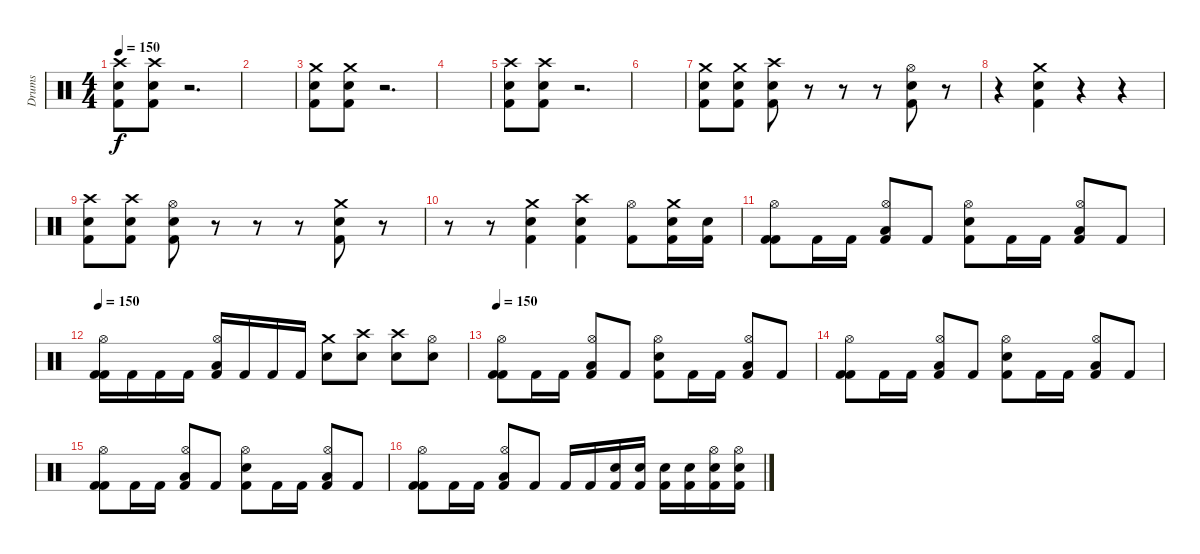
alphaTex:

\track ("Drums" "Drums") {instrument percussion}
\staff {score}
\articulation defaults
\ts (4 4)
\tempo 150
\clef neutral
\ks c
("Crash high (hit)" "Snare (hit) 2" "Kick (hit) 2").8{dy f} ("Crash high (hit)" "Snare (hit) 2" "Kick (hit) 2").8 r.2{d} |
|
("Crash medium (hit)" "Snare (hit) 2" "Kick (hit) 2").8 ("Crash medium (hit)" "Snare (hit) 2" "Kick (hit) 2").8 r.2{d} |
|
("Crash high (hit)" "Snare (hit) 2" "Kick (hit) 2").8 ("Crash high (hit)" "Snare (hit) 2" "Kick (hit) 2").8 r.2{d} |
|
("Crash medium (hit)" "Snare (hit) 2" "Kick (hit) 2").8 ("Crash medium (hit)" "Snare (hit) 2" "Kick (hit) 2").8 ("Crash high (hit)" "Snare (hit) 2" "Kick (hit) 2").8 r.8 r.8 r.8 ("Hi-Hat (open)" "Snare (hit) 2" "Kick (hit) 2").8 r.8 |
r.4 ("Crash medium (hit)" "Snare (hit) 2" "Kick (hit) 2").4 r.4 r.4 |
("Crash high (hit)" "Snare (hit) 2" "Kick (hit) 2").8 ("Crash high (hit)" "Snare (hit) 2" "Kick (hit) 2").8 ("Hi-Hat (open)" "Snare (hit) 2" "Kick (hit) 2").8 r.8 r.8 r.8 ("Crash medium (hit)" "Snare (hit) 2" "Kick (hit) 2").8 r.8 |
r.8 r.8 ("Crash medium (hit)" "Snare (hit) 2" "Kick (hit) 2").4 ("Crash high (hit)" "Snare (hit) 2" "Kick (hit) 2").4 ("Hi-Hat (open)" "Kick (hit) 2").8 ("Crash medium (hit)" "Snare (hit) 2" "Kick (hit) 2").16 ("Snare (hit) 2" "Kick (hit) 2").16 |
("Hi-Hat (open)" "Kick (hit) 2" "Kick (hit) 2").8 "Kick (hit) 2".16 "Kick (hit) 2".16 ("Hi-Hat (open)" "Low Floor Tom (hit)" "Kick (hit) 2").8 "Kick (hit) 2".8 ("Hi-Hat (open)" "Snare (hit) 2" "Kick (hit) 2").8 "Kick (hit) 2".16 "Kick (hit) 2".16 ("Hi-Hat (open)" "Low Floor Tom (hit)" "Kick (hit) 2").8 "Kick (hit) 2".8 |
\tempo 150
("Hi-Hat (open)" "Kick (hit) 2" "Kick (hit) 2").16 "Kick (hit) 2".16 "Kick (hit) 2".16 "Kick (hit) 2".16 ("Hi-Hat (open)" "Low Floor Tom (hit)" "Kick (hit) 2").16 "Kick (hit) 2".16 "Kick (hit) 2".16 "Kick (hit) 2".16 ("Crash medium (hit)" "Snare (hit) 2").8 ("Crash high (hit)" "Snare (hit) 2").8 ("Crash high (hit)" "Snare (hit) 2").8 ("Hi-Hat (open)" "Snare (hit) 2").8 |
\tempo 150
("Hi-Hat (open)" "Kick (hit) 2" "Kick (hit) 2").8{volume 12} "Kick (hit) 2".16 "Kick (hit) 2".16 ("Hi-Hat (open)" "Low Floor Tom (hit)" "Kick (hit) 2").8 "Kick (hit) 2".8 ("Hi-Hat (open)" "Snare (hit) 2" "Kick (hit) 2").8 "Kick (hit) 2".16 "Kick (hit) 2".16 ("Hi-Hat (open)" "Low Floor Tom (hit)" "Kick (hit) 2").8 "Kick (hit) 2".8 |
("Hi-Hat (open)" "Kick (hit) 2" "Kick (hit) 2").8{volume 12} "Kick (hit) 2".16 "Kick (hit) 2".16 ("Hi-Hat (open)" "Low Floor Tom (hit)" "Kick (hit) 2").8 "Kick (hit) 2".8 ("Hi-Hat (open)" "Snare (hit) 2" "Kick (hit) 2").8 "Kick (hit) 2".16 "Kick (hit) 2".16 ("Hi-Hat (open)" "Low Floor Tom (hit)" "Kick (hit) 2").8 "Kick (hit) 2".8 |
("Hi-Hat (open)" "Kick (hit) 2" "Kick (hit) 2").8 "Kick (hit) 2".16 "Kick (hit) 2".16 ("Hi-Hat (open)" "Low Floor Tom (hit)" "Kick (hit) 2").8 "Kick (hit) 2".8 ("Hi-Hat (open)" "Snare (hit) 2" "Kick (hit) 2").8 "Kick (hit) 2".16 "Kick (hit) 2".16 ("Hi-Hat (open)" "Low Floor Tom (hit)" "Kick (hit) 2").8 "Kick (hit) 2".8 |
("Hi-Hat (open)" "Kick (hit) 2" "Kick (hit) 2").8{volume 12} "Kick (hit) 2".16 "Kick (hit) 2".16 ("Hi-Hat (open)" "Low Floor Tom (hit)" "Kick (hit) 2").8 "Kick (hit) 2".8 "Kick (hit) 2".16 "Kick (hit) 2".16 ("Snare (hit) 2" "Kick (hit) 2").16 ("Snare (hit) 2" "Kick (hit) 2").16 ("Snare (hit) 2" "Kick (hit) 2").16 ("Snare (hit) 2" "Kick (hit) 2").16 ("Hi-Hat (open)" "Snare (hit) 2" "Kick (hit) 2").16 ("Hi-Hat (open)" "Snare (hit) 2" "Kick (hit) 2").16
